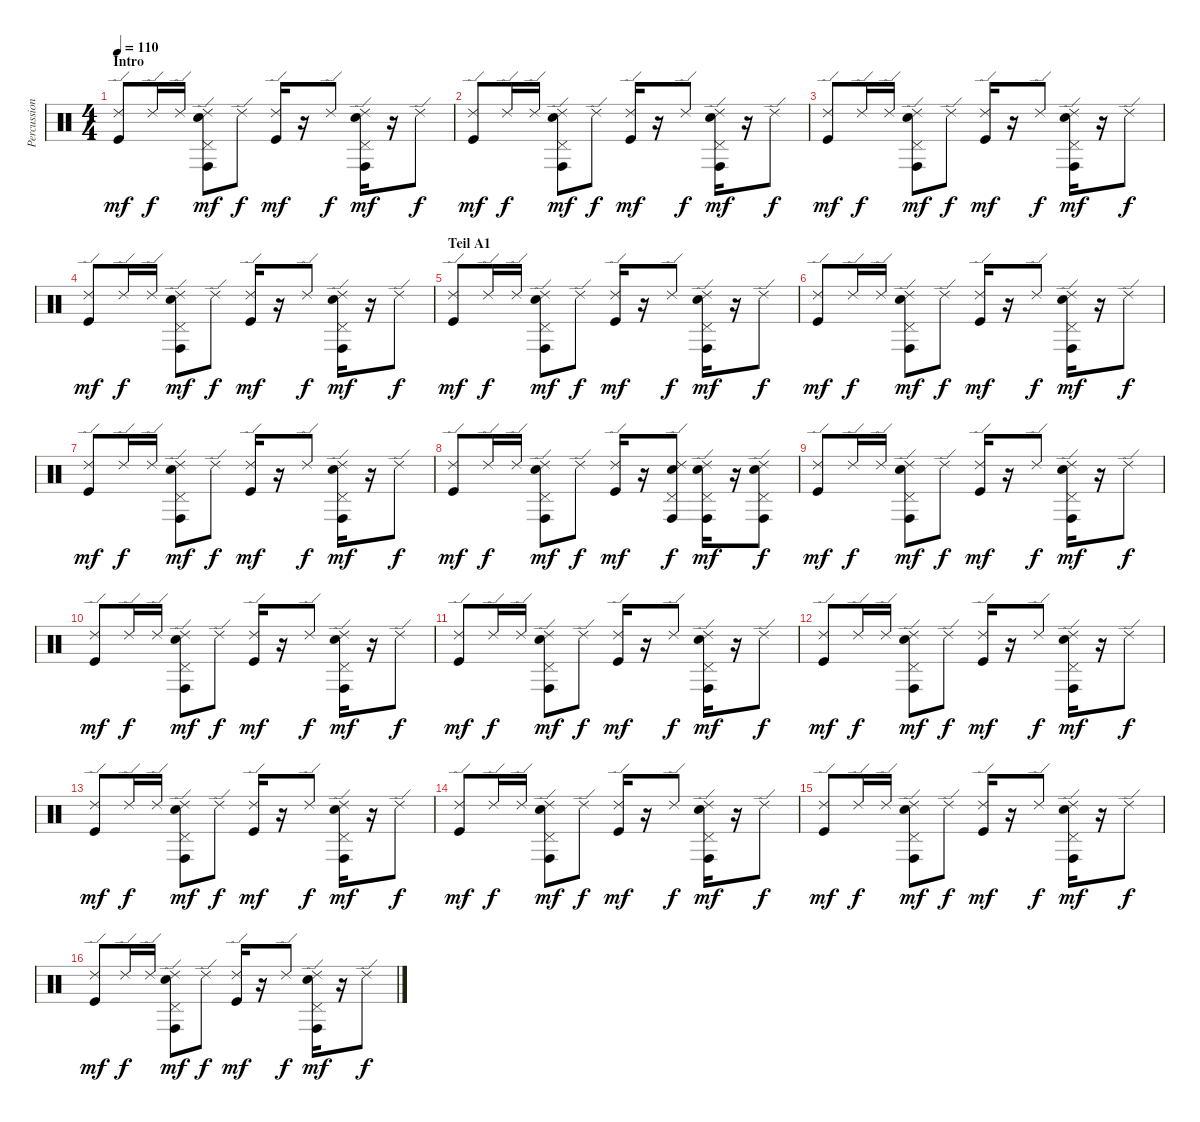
\track ("Percussion" "Percussion") {instrument percussion}
\staff {score}
\articulation defaults
\ts (4 4)
\section ("" "Intro")
\tempo 110
\clef neutral
\ks c
("Ride (edge) 2" "Kick (hit)").8{dy mf} "Ride (edge) 2".16{dy f} "Ride (edge) 2".16 ("Ride (edge) 2" "Pedal Hi-Hat (hit)" "Conga high (hit)" "Electric Snare (hit)").8{dy mf} "Ride (edge) 2".8{dy f} ("Ride (edge) 2" "Kick (hit)").16{dy mf} r.16 "Ride (edge) 2".8{dy f} ("Ride (edge) 2" "Pedal Hi-Hat (hit)" "Conga high (hit)" "Electric Snare (hit)").16{dy mf} r.16 "Ride (edge) 2".8{dy f} |
("Ride (edge) 2" "Kick (hit)").8{dy mf} "Ride (edge) 2".16{dy f} "Ride (edge) 2".16 ("Ride (edge) 2" "Pedal Hi-Hat (hit)" "Conga high (hit)" "Electric Snare (hit)").8{dy mf} "Ride (edge) 2".8{dy f} ("Ride (edge) 2" "Kick (hit)").16{dy mf} r.16 "Ride (edge) 2".8{dy f} ("Ride (edge) 2" "Pedal Hi-Hat (hit)" "Conga high (hit)" "Electric Snare (hit)").16{dy mf} r.16 "Ride (edge) 2".8{dy f} |
("Ride (edge) 2" "Kick (hit)").8{dy mf} "Ride (edge) 2".16{dy f} "Ride (edge) 2".16 ("Ride (edge) 2" "Pedal Hi-Hat (hit)" "Conga high (hit)" "Electric Snare (hit)").8{dy mf} "Ride (edge) 2".8{dy f} ("Ride (edge) 2" "Kick (hit)").16{dy mf} r.16 "Ride (edge) 2".8{dy f} ("Ride (edge) 2" "Pedal Hi-Hat (hit)" "Conga high (hit)" "Electric Snare (hit)").16{dy mf} r.16 "Ride (edge) 2".8{dy f} |
("Ride (edge) 2" "Kick (hit)").8{dy mf} "Ride (edge) 2".16{dy f} "Ride (edge) 2".16 ("Ride (edge) 2" "Pedal Hi-Hat (hit)" "Conga high (hit)" "Electric Snare (hit)").8{dy mf} "Ride (edge) 2".8{dy f} ("Ride (edge) 2" "Kick (hit)").16{dy mf} r.16 "Ride (edge) 2".8{dy f} ("Ride (edge) 2" "Pedal Hi-Hat (hit)" "Conga high (hit)" "Electric Snare (hit)").16{dy mf} r.16 "Ride (edge) 2".8{dy f} |
\section ("" "Teil A1")
("Ride (edge) 2" "Kick (hit)").8{dy mf} "Ride (edge) 2".16{dy f} "Ride (edge) 2".16 ("Ride (edge) 2" "Pedal Hi-Hat (hit)" "Conga high (hit)" "Electric Snare (hit)").8{dy mf} "Ride (edge) 2".8{dy f} ("Ride (edge) 2" "Kick (hit)").16{dy mf} r.16 "Ride (edge) 2".8{dy f} ("Ride (edge) 2" "Pedal Hi-Hat (hit)" "Conga high (hit)" "Electric Snare (hit)").16{dy mf} r.16 "Ride (edge) 2".8{dy f} |
("Ride (edge) 2" "Kick (hit)").8{dy mf} "Ride (edge) 2".16{dy f} "Ride (edge) 2".16 ("Ride (edge) 2" "Pedal Hi-Hat (hit)" "Conga high (hit)" "Electric Snare (hit)").8{dy mf} "Ride (edge) 2".8{dy f} ("Ride (edge) 2" "Kick (hit)").16{dy mf} r.16 "Ride (edge) 2".8{dy f} ("Ride (edge) 2" "Pedal Hi-Hat (hit)" "Conga high (hit)" "Electric Snare (hit)").16{dy mf} r.16 "Ride (edge) 2".8{dy f} |
("Ride (edge) 2" "Kick (hit)").8{dy mf} "Ride (edge) 2".16{dy f} "Ride (edge) 2".16 ("Ride (edge) 2" "Pedal Hi-Hat (hit)" "Conga high (hit)" "Electric Snare (hit)").8{dy mf} "Ride (edge) 2".8{dy f} ("Ride (edge) 2" "Kick (hit)").16{dy mf} r.16 "Ride (edge) 2".8{dy f} ("Ride (edge) 2" "Pedal Hi-Hat (hit)" "Conga high (hit)" "Electric Snare (hit)").16{dy mf} r.16 "Ride (edge) 2".8{dy f} |
("Ride (edge) 2" "Kick (hit)").8{dy mf} "Ride (edge) 2".16{dy f} "Ride (edge) 2".16 ("Ride (edge) 2" "Pedal Hi-Hat (hit)" "Conga high (hit)" "Electric Snare (hit)").8{dy mf} "Ride (edge) 2".8{dy f} ("Ride (edge) 2" "Kick (hit)").16{dy mf} r.16 ("Ride (edge) 2" "Pedal Hi-Hat (hit)" "Conga high (hit)" "Electric Snare (hit)").8{dy f} ("Ride (edge) 2" "Pedal Hi-Hat (hit)" "Conga high (hit)" "Electric Snare (hit)").16{dy mf} r.16 ("Ride (edge) 2" "Pedal Hi-Hat (hit)" "Conga high (hit)" "Electric Snare (hit)").8{dy f} |
("Ride (edge) 2" "Kick (hit)").8{dy mf} "Ride (edge) 2".16{dy f} "Ride (edge) 2".16 ("Ride (edge) 2" "Pedal Hi-Hat (hit)" "Conga high (hit)" "Electric Snare (hit)").8{dy mf} "Ride (edge) 2".8{dy f} ("Ride (edge) 2" "Kick (hit)").16{dy mf} r.16 "Ride (edge) 2".8{dy f} ("Ride (edge) 2" "Pedal Hi-Hat (hit)" "Conga high (hit)" "Electric Snare (hit)").16{dy mf} r.16 "Ride (edge) 2".8{dy f} |
("Ride (edge) 2" "Kick (hit)").8{dy mf} "Ride (edge) 2".16{dy f} "Ride (edge) 2".16 ("Ride (edge) 2" "Pedal Hi-Hat (hit)" "Conga high (hit)" "Electric Snare (hit)").8{dy mf} "Ride (edge) 2".8{dy f} ("Ride (edge) 2" "Kick (hit)").16{dy mf} r.16 "Ride (edge) 2".8{dy f} ("Ride (edge) 2" "Pedal Hi-Hat (hit)" "Conga high (hit)" "Electric Snare (hit)").16{dy mf} r.16 "Ride (edge) 2".8{dy f} |
("Ride (edge) 2" "Kick (hit)").8{dy mf} "Ride (edge) 2".16{dy f} "Ride (edge) 2".16 ("Ride (edge) 2" "Pedal Hi-Hat (hit)" "Conga high (hit)" "Electric Snare (hit)").8{dy mf} "Ride (edge) 2".8{dy f} ("Ride (edge) 2" "Kick (hit)").16{dy mf} r.16 "Ride (edge) 2".8{dy f} ("Ride (edge) 2" "Pedal Hi-Hat (hit)" "Conga high (hit)" "Electric Snare (hit)").16{dy mf} r.16 "Ride (edge) 2".8{dy f} |
("Ride (edge) 2" "Kick (hit)").8{dy mf} "Ride (edge) 2".16{dy f} "Ride (edge) 2".16 ("Ride (edge) 2" "Pedal Hi-Hat (hit)" "Conga high (hit)" "Electric Snare (hit)").8{dy mf} "Ride (edge) 2".8{dy f} ("Ride (edge) 2" "Kick (hit)").16{dy mf} r.16 "Ride (edge) 2".8{dy f} ("Ride (edge) 2" "Pedal Hi-Hat (hit)" "Conga high (hit)" "Electric Snare (hit)").16{dy mf} r.16 "Ride (edge) 2".8{dy f} |
("Ride (edge) 2" "Kick (hit)").8{dy mf} "Ride (edge) 2".16{dy f} "Ride (edge) 2".16 ("Ride (edge) 2" "Pedal Hi-Hat (hit)" "Conga high (hit)" "Electric Snare (hit)").8{dy mf} "Ride (edge) 2".8{dy f} ("Ride (edge) 2" "Kick (hit)").16{dy mf} r.16 "Ride (edge) 2".8{dy f} ("Ride (edge) 2" "Pedal Hi-Hat (hit)" "Conga high (hit)" "Electric Snare (hit)").16{dy mf} r.16 "Ride (edge) 2".8{dy f} |
("Ride (edge) 2" "Kick (hit)").8{dy mf} "Ride (edge) 2".16{dy f} "Ride (edge) 2".16 ("Ride (edge) 2" "Pedal Hi-Hat (hit)" "Conga high (hit)" "Electric Snare (hit)").8{dy mf} "Ride (edge) 2".8{dy f} ("Ride (edge) 2" "Kick (hit)").16{dy mf} r.16 "Ride (edge) 2".8{dy f} ("Ride (edge) 2" "Pedal Hi-Hat (hit)" "Conga high (hit)" "Electric Snare (hit)").16{dy mf} r.16 "Ride (edge) 2".8{dy f} |
("Ride (edge) 2" "Kick (hit)").8{dy mf} "Ride (edge) 2".16{dy f} "Ride (edge) 2".16 ("Ride (edge) 2" "Pedal Hi-Hat (hit)" "Conga high (hit)" "Electric Snare (hit)").8{dy mf} "Ride (edge) 2".8{dy f} ("Ride (edge) 2" "Kick (hit)").16{dy mf} r.16 "Ride (edge) 2".8{dy f} ("Ride (edge) 2" "Pedal Hi-Hat (hit)" "Conga high (hit)" "Electric Snare (hit)").16{dy mf} r.16 "Ride (edge) 2".8{dy f} |
("Ride (edge) 2" "Kick (hit)").8{dy mf} "Ride (edge) 2".16{dy f} "Ride (edge) 2".16 ("Ride (edge) 2" "Pedal Hi-Hat (hit)" "Conga high (hit)" "Electric Snare (hit)").8{dy mf} "Ride (edge) 2".8{dy f} ("Ride (edge) 2" "Kick (hit)").16{dy mf} r.16 "Ride (edge) 2".8{dy f} ("Ride (edge) 2" "Pedal Hi-Hat (hit)" "Conga high (hit)" "Electric Snare (hit)").16{dy mf} r.16 "Ride (edge) 2".8{dy f}
